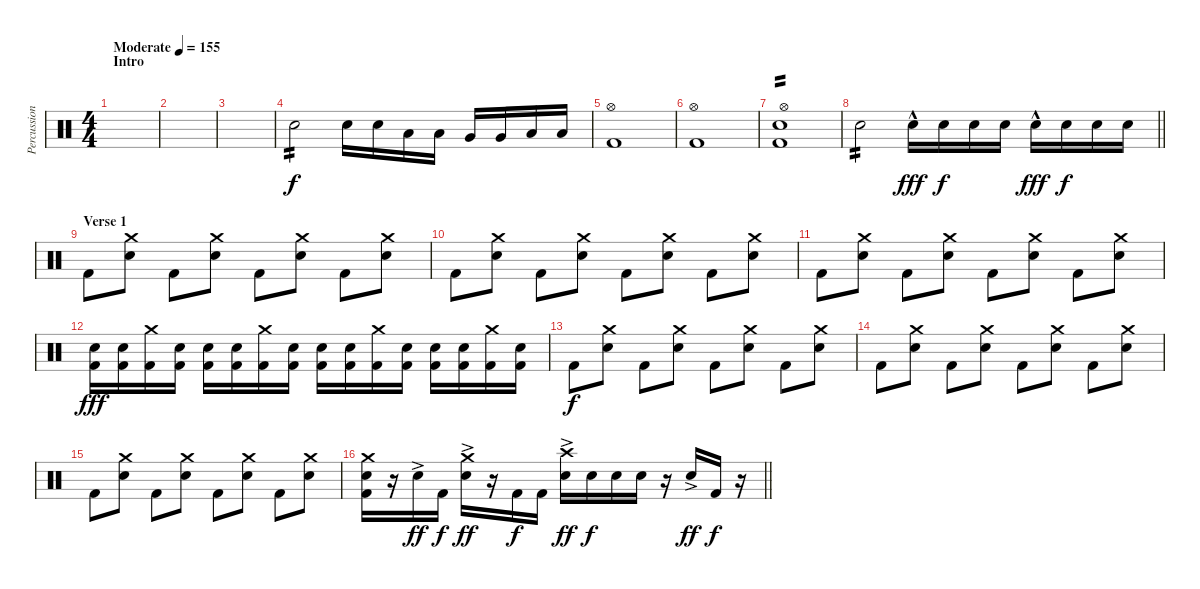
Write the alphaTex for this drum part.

\track ("Percussion (Mike Oliver)" "Percussion") {instrument percussion}
\staff {score}
\articulation defaults
\ts (4 4)
\section ("" "Intro")
\tempo (155 "Moderate")
\clef neutral
\ks c
|
|
|
"Snare (hit) 2".2{tp 2} "Snare (hit) 2".16 "Snare (hit) 2".16 "Low Tom (hit)".16 "Low Tom (hit)".16 "Very Low Tom (hit)".16 "Very Low Tom (hit)".16 "Low Floor Tom (hit)".16 "Low Floor Tom (hit)".16 |
("Hi-Hat (open)" "Kick (hit) 2").1 |
("Hi-Hat (open)" "Kick (hit) 2").1 |
("Hi-Hat (open)" "Snare (hit) 2" "Kick (hit) 2").1{tp 2} |
\barLineRight lightlight "Snare (hit) 2".2{tp 2} "Snare (hit) 2"{hac}.16{dy fff} "Snare (hit) 2".16{dy f} "Snare (hit) 2".16 "Snare (hit) 2".16 "Snare (hit) 2"{hac}.16{dy fff} "Snare (hit) 2".16{dy f} "Snare (hit) 2".16 "Snare (hit) 2".16
|
\section ("" "Verse 1")
"Kick (hit) 2".8 ("Crash medium (hit)" "Snare (hit) 2").8 "Kick (hit) 2".8 ("Crash medium (hit)" "Snare (hit) 2").8 "Kick (hit) 2".8 ("Crash medium (hit)" "Snare (hit) 2").8 "Kick (hit) 2".8 ("Crash medium (hit)" "Snare (hit) 2").8 |
"Kick (hit) 2".8 ("Crash medium (hit)" "Snare (hit) 2").8 "Kick (hit) 2".8 ("Crash medium (hit)" "Snare (hit) 2").8 "Kick (hit) 2".8 ("Crash medium (hit)" "Snare (hit) 2").8 "Kick (hit) 2".8 ("Crash medium (hit)" "Snare (hit) 2").8 |
"Kick (hit) 2".8 ("Crash medium (hit)" "Snare (hit) 2").8 "Kick (hit) 2".8 ("Crash medium (hit)" "Snare (hit) 2").8 "Kick (hit) 2".8 ("Crash medium (hit)" "Snare (hit) 2").8 "Kick (hit) 2".8 ("Crash medium (hit)" "Snare (hit) 2").8 |
("Snare (hit) 2" "Kick (hit) 2").16{dy fff} ("Snare (hit) 2" "Kick (hit) 2").16 ("Crash medium (hit)" "Kick (hit) 2").16 ("Snare (hit) 2" "Kick (hit) 2").16 ("Snare (hit) 2" "Kick (hit) 2").16 ("Snare (hit) 2" "Kick (hit) 2").16 ("Crash medium (hit)" "Kick (hit) 2").16 ("Snare (hit) 2" "Kick (hit) 2").16 ("Snare (hit) 2" "Kick (hit) 2").16 ("Snare (hit) 2" "Kick (hit) 2").16 ("Crash medium (hit)" "Kick (hit) 2").16 ("Snare (hit) 2" "Kick (hit) 2").16 ("Snare (hit) 2" "Kick (hit) 2").16 ("Snare (hit) 2" "Kick (hit) 2").16 ("Crash medium (hit)" "Kick (hit) 2").16 ("Snare (hit) 2" "Kick (hit) 2").16 |
"Kick (hit) 2".8{dy f} ("Crash medium (hit)" "Snare (hit) 2").8 "Kick (hit) 2".8 ("Crash medium (hit)" "Snare (hit) 2").8 "Kick (hit) 2".8 ("Crash medium (hit)" "Snare (hit) 2").8 "Kick (hit) 2".8 ("Crash medium (hit)" "Snare (hit) 2").8 |
"Kick (hit) 2".8 ("Crash medium (hit)" "Snare (hit) 2").8 "Kick (hit) 2".8 ("Crash medium (hit)" "Snare (hit) 2").8 "Kick (hit) 2".8 ("Crash medium (hit)" "Snare (hit) 2").8 "Kick (hit) 2".8 ("Crash medium (hit)" "Snare (hit) 2").8 |
"Kick (hit) 2".8 ("Crash medium (hit)" "Snare (hit) 2").8 "Kick (hit) 2".8 ("Crash medium (hit)" "Snare (hit) 2").8 "Kick (hit) 2".8 ("Crash medium (hit)" "Snare (hit) 2").8 "Kick (hit) 2".8 ("Crash medium (hit)" "Snare (hit) 2").8 |
\barLineRight lightlight
("Crash medium (hit)" "Snare (hit) 2" "Kick (hit) 2").16 r.16 "Snare (hit) 2"{ac}.16{dy ff} "Kick (hit) 2".16{dy f} ("Crash medium (hit)" "Snare (hit) 2"{ac}).16{dy ff} r.16 "Kick (hit) 2".16{dy f} "Kick (hit) 2".16 ("Crash high (hit)" "Snare (hit) 2"{ac}).16{dy ff} "Snare (hit) 2".16{dy f} "Snare (hit) 2".16 "Snare (hit) 2".16 r.16 "Snare (hit) 2"{ac}.16{dy ff} "Kick (hit) 2".16{dy f} r.16
